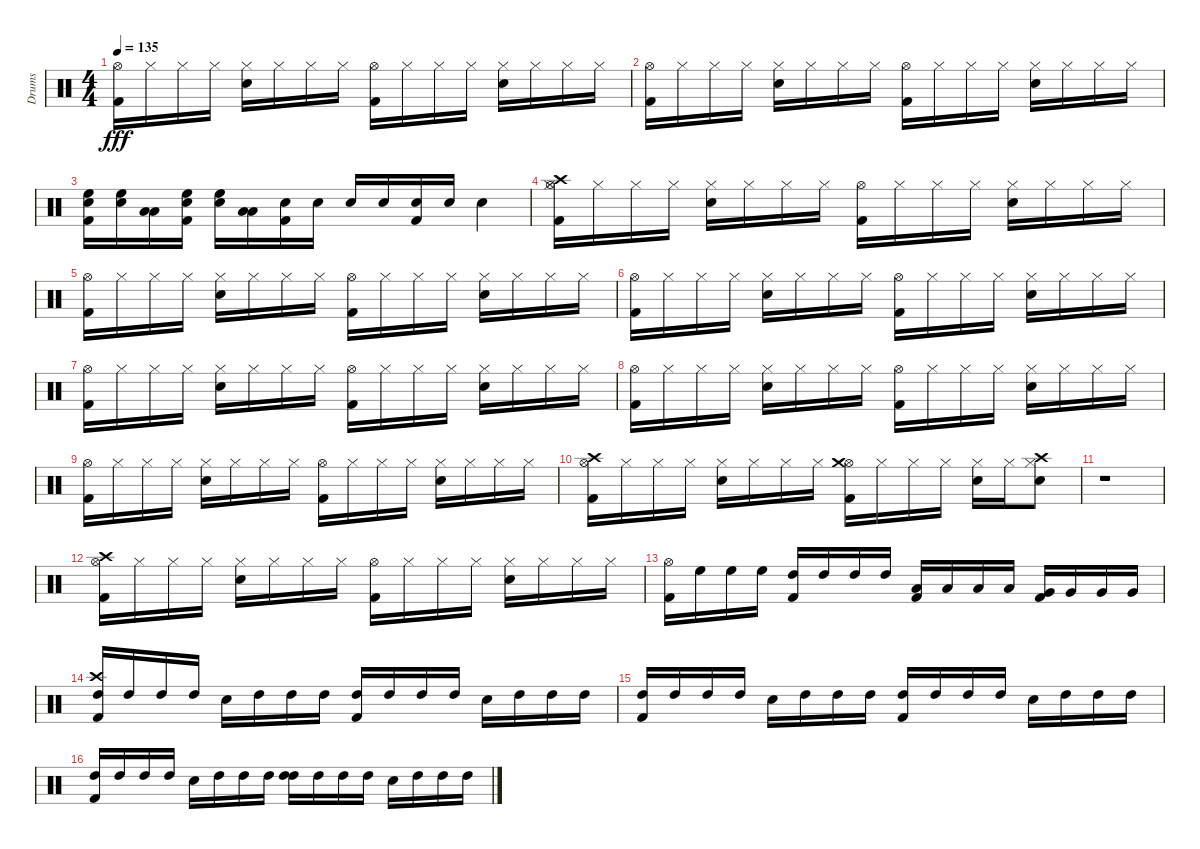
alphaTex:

\track ("Drums" "Drums") {instrument percussion}
\staff {score}
\articulation defaults
\ts (4 4)
\tempo 135
\clef neutral
\ks c
("Hi-Hat (open)" "Kick (hit) 2").16{dy fff} "Hi-Hat (closed)".16 "Hi-Hat (closed)".16 "Hi-Hat (closed)".16 ("Snare (hit) 2" "Hi-Hat (closed)").16 "Hi-Hat (closed)".16 "Hi-Hat (closed)".16 "Hi-Hat (closed)".16 ("Kick (hit) 2" "Hi-Hat (open)").16 "Hi-Hat (closed)".16 "Hi-Hat (closed)".16 "Hi-Hat (closed)".16 ("Snare (hit) 2" "Hi-Hat (closed)").16 "Hi-Hat (closed)".16 "Hi-Hat (closed)".16 "Hi-Hat (closed)".16 |
("Hi-Hat (open)" "Kick (hit) 2").16 "Hi-Hat (closed)".16 "Hi-Hat (closed)".16 "Hi-Hat (closed)".16 ("Snare (hit) 2" "Hi-Hat (closed)").16 "Hi-Hat (closed)".16 "Hi-Hat (closed)".16 "Hi-Hat (closed)".16 ("Kick (hit) 2" "Hi-Hat (open)").16 "Hi-Hat (closed)".16 "Hi-Hat (closed)".16 "Hi-Hat (closed)".16 ("Snare (hit) 2" "Hi-Hat (closed)").16 "Hi-Hat (closed)".16 "Hi-Hat (closed)".16 "Hi-Hat (closed)".16 |
("Snare (hit) 2" "High Floor Tom (hit)" "Kick (hit) 2").16 ("Snare (hit) 2" "High Floor Tom (hit)").16 ("Low Floor Tom (hit)" "Low Tom (hit)").16 ("Kick (hit) 2" "Snare (hit) 2" "High Floor Tom (hit)").16 ("Snare (hit) 2" "High Floor Tom (hit)").16 ("Low Floor Tom (hit)" "Low Tom (hit)").16 ("Snare (hit) 2" "Kick (hit) 2").16 "Snare (hit) 2".16 "Snare (hit) 2".16 "Snare (hit) 2".16 ("Kick (hit) 2" "Snare (hit) 2").16 "Snare (hit) 2".16 "Snare (hit) 2".4 |
("Hi-Hat (closed)" "Crash high (hit)" "Hi-Hat (open)" "Kick (hit) 2").16 "Hi-Hat (closed)".16 "Hi-Hat (closed)".16 "Hi-Hat (closed)".16 ("Snare (hit) 2" "Hi-Hat (closed)").16 "Hi-Hat (closed)".16 "Hi-Hat (closed)".16 "Hi-Hat (closed)".16 ("Kick (hit) 2" "Hi-Hat (open)").16 "Hi-Hat (closed)".16 "Hi-Hat (closed)".16 "Hi-Hat (closed)".16 ("Snare (hit) 2" "Hi-Hat (closed)").16 "Hi-Hat (closed)".16 "Hi-Hat (closed)".16 "Hi-Hat (closed)".16 |
("Hi-Hat (open)" "Kick (hit) 2").16 "Hi-Hat (closed)".16 "Hi-Hat (closed)".16 "Hi-Hat (closed)".16 ("Snare (hit) 2" "Hi-Hat (closed)").16 "Hi-Hat (closed)".16 "Hi-Hat (closed)".16 "Hi-Hat (closed)".16 ("Kick (hit) 2" "Hi-Hat (open)").16 "Hi-Hat (closed)".16 "Hi-Hat (closed)".16 "Hi-Hat (closed)".16 ("Snare (hit) 2" "Hi-Hat (closed)").16 "Hi-Hat (closed)".16 "Hi-Hat (closed)".16 "Hi-Hat (closed)".16 |
("Hi-Hat (open)" "Kick (hit) 2").16 "Hi-Hat (closed)".16 "Hi-Hat (closed)".16 "Hi-Hat (closed)".16 ("Snare (hit) 2" "Hi-Hat (closed)").16 "Hi-Hat (closed)".16 "Hi-Hat (closed)".16 "Hi-Hat (closed)".16 ("Kick (hit) 2" "Hi-Hat (open)").16 "Hi-Hat (closed)".16 "Hi-Hat (closed)".16 "Hi-Hat (closed)".16 ("Snare (hit) 2" "Hi-Hat (closed)").16 "Hi-Hat (closed)".16 "Hi-Hat (closed)".16 "Hi-Hat (closed)".16 |
("Hi-Hat (open)" "Kick (hit) 2").16 "Hi-Hat (closed)".16 "Hi-Hat (closed)".16 "Hi-Hat (closed)".16 ("Snare (hit) 2" "Hi-Hat (closed)").16 "Hi-Hat (closed)".16 "Hi-Hat (closed)".16 "Hi-Hat (closed)".16 ("Kick (hit) 2" "Hi-Hat (open)").16 "Hi-Hat (closed)".16 "Hi-Hat (closed)".16 "Hi-Hat (closed)".16 ("Snare (hit) 2" "Hi-Hat (closed)").16 "Hi-Hat (closed)".16 "Hi-Hat (closed)".16 "Hi-Hat (closed)".16 |
("Hi-Hat (open)" "Kick (hit) 2").16 "Hi-Hat (closed)".16 "Hi-Hat (closed)".16 "Hi-Hat (closed)".16 ("Snare (hit) 2" "Hi-Hat (closed)").16 "Hi-Hat (closed)".16 "Hi-Hat (closed)".16 "Hi-Hat (closed)".16 ("Kick (hit) 2" "Hi-Hat (open)").16 "Hi-Hat (closed)".16 "Hi-Hat (closed)".16 "Hi-Hat (closed)".16 ("Snare (hit) 2" "Hi-Hat (closed)").16 "Hi-Hat (closed)".16 "Hi-Hat (closed)".16 "Hi-Hat (closed)".16 |
("Hi-Hat (open)" "Kick (hit) 2").16 "Hi-Hat (closed)".16 "Hi-Hat (closed)".16 "Hi-Hat (closed)".16 ("Snare (hit) 2" "Hi-Hat (closed)").16 "Hi-Hat (closed)".16 "Hi-Hat (closed)".16 "Hi-Hat (closed)".16 ("Kick (hit) 2" "Hi-Hat (open)").16 "Hi-Hat (closed)".16 "Hi-Hat (closed)".16 "Hi-Hat (closed)".16 ("Snare (hit) 2" "Hi-Hat (closed)").16 "Hi-Hat (closed)".16 "Hi-Hat (closed)".16 "Hi-Hat (closed)".16 |
("Crash high (hit)" "Hi-Hat (open)" "Kick (hit) 2").16 "Hi-Hat (closed)".16 "Hi-Hat (closed)".16 "Hi-Hat (closed)".16 ("Snare (hit) 2" "Hi-Hat (closed)").16 "Hi-Hat (closed)".16 "Hi-Hat (closed)".16 "Hi-Hat (closed)".16 ("Kick (hit) 2" "Hi-Hat (open)" "Crash medium (hit)").16 "Hi-Hat (closed)".16 "Hi-Hat (closed)".16 "Hi-Hat (closed)".16 ("Snare (hit) 2" "Hi-Hat (closed)").16 "Hi-Hat (closed)".16 ("Snare (hit) 2" "Crash high (hit)" "Hi-Hat (closed)").8 |
r.1 |
("Crash high (hit)" "Hi-Hat (open)" "Kick (hit) 2").16 "Hi-Hat (closed)".16 "Hi-Hat (closed)".16 "Hi-Hat (closed)".16 ("Snare (hit) 2" "Hi-Hat (closed)").16 "Hi-Hat (closed)".16 "Hi-Hat (closed)".16 "Hi-Hat (closed)".16 ("Kick (hit) 2" "Hi-Hat (open)").16 "Hi-Hat (closed)".16 "Hi-Hat (closed)".16 "Hi-Hat (closed)".16 ("Snare (hit) 2" "Hi-Hat (closed)").16 "Hi-Hat (closed)".16 "Hi-Hat (closed)".16 "Hi-Hat (closed)".16 |
("Hi-Hat (open)" "Kick (hit) 2").16 "High Floor Tom (hit)".16 "High Floor Tom (hit)".16 "High Floor Tom (hit)".16 ("Kick (hit) 2" "High Tom (hit)").16 "High Tom (hit)".16 "High Tom (hit)".16 "High Tom (hit)".16 ("Kick (hit) 2" "Low Tom (hit)").16 "Low Tom (hit)".16 "Low Tom (hit)".16 "Low Tom (hit)".16 ("Kick (hit) 2" "Very Low Tom (hit)").16 "Very Low Tom (hit)".16 "Very Low Tom (hit)".16 "Very Low Tom (hit)".16 |
("Crash high (hit)" "Kick (hit) 2" "High Tom (hit)").16 "High Tom (hit)".16 "High Tom (hit)".16 "High Tom (hit)".16 "Snare (hit) 2".16 "High Tom (hit)".16 "High Tom (hit)".16 "High Tom (hit)".16 ("Kick (hit) 2" "High Tom (hit)").16 "High Tom (hit)".16 "High Tom (hit)".16 "High Tom (hit)".16 "Snare (hit) 2".16 "High Tom (hit)".16 "High Tom (hit)".16 "High Tom (hit)".16 |
("Kick (hit) 2" "High Tom (hit)").16 "High Tom (hit)".16 "High Tom (hit)".16 "High Tom (hit)".16 "Snare (hit) 2".16 "High Tom (hit)".16 "High Tom (hit)".16 "High Tom (hit)".16 ("Kick (hit) 2" "High Tom (hit)").16 "High Tom (hit)".16 "High Tom (hit)".16 "High Tom (hit)".16 "Snare (hit) 2".16 "High Tom (hit)".16 "High Tom (hit)".16 "High Tom (hit)".16 |
("High Tom (hit)" "Kick (hit) 2").16 "High Tom (hit)".16 "High Tom (hit)".16 "High Tom (hit)".16 "Snare (hit) 2".16 "High Tom (hit)".16 "High Tom (hit)".16 "High Tom (hit)".16 ("High Tom (hit)" "High Tom (hit)").16 "High Tom (hit)".16 "High Tom (hit)".16 "High Tom (hit)".16 "Snare (hit) 2".16 "High Tom (hit)".16 "High Tom (hit)".16 "High Tom (hit)".16
